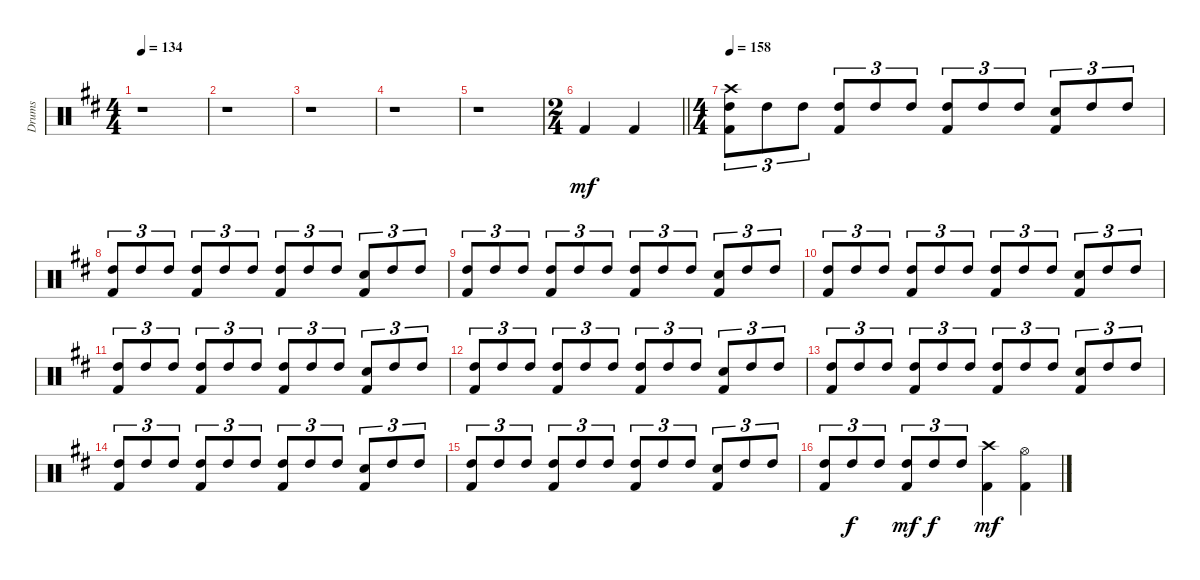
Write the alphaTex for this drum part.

\track ("Drums" "Drums") {instrument percussion}
\staff {score}
\articulation defaults
\ts (4 4)
\tempo 134
\clef neutral
\ks d
r.1{dy mf} |
r.1 |
r.1 |
r.1 |
r.1 |
\ts (2 4)
\barLineRight lightlight "Kick (hit) 2".4 "Kick (hit) 2".4
|
\ts (4 4)
\tempo 158
("Kick (hit) 2" "High Tom (hit)" "Crash high (hit)").8{tu (3 2)} "High Tom (hit)".8{tu (3 2)} "High Tom (hit)".8{tu (3 2)} ("Kick (hit) 2" "High Tom (hit)").8{tu (3 2)} "High Tom (hit)".8{tu (3 2)} "High Tom (hit)".8{tu (3 2)} ("Kick (hit) 2" "High Tom (hit)").8{tu (3 2)} "High Tom (hit)".8{tu (3 2)} "High Tom (hit)".8{tu (3 2)} ("Kick (hit) 2" "Snare (hit) 2").8{tu (3 2)} "High Tom (hit)".8{tu (3 2)} "High Tom (hit)".8{tu (3 2)} |
("Kick (hit) 2" "High Tom (hit)").8{tu (3 2)} "High Tom (hit)".8{tu (3 2)} "High Tom (hit)".8{tu (3 2)} ("Kick (hit) 2" "High Tom (hit)").8{tu (3 2)} "High Tom (hit)".8{tu (3 2)} "High Tom (hit)".8{tu (3 2)} ("Kick (hit) 2" "High Tom (hit)").8{tu (3 2)} "High Tom (hit)".8{tu (3 2)} "High Tom (hit)".8{tu (3 2)} ("Kick (hit) 2" "Snare (hit) 2").8{tu (3 2)} "High Tom (hit)".8{tu (3 2)} "High Tom (hit)".8{tu (3 2)} |
("Kick (hit) 2" "High Tom (hit)").8{tu (3 2)} "High Tom (hit)".8{tu (3 2)} "High Tom (hit)".8{tu (3 2)} ("Kick (hit) 2" "High Tom (hit)").8{tu (3 2)} "High Tom (hit)".8{tu (3 2)} "High Tom (hit)".8{tu (3 2)} ("Kick (hit) 2" "High Tom (hit)").8{tu (3 2)} "High Tom (hit)".8{tu (3 2)} "High Tom (hit)".8{tu (3 2)} ("Kick (hit) 2" "Snare (hit) 2").8{tu (3 2)} "High Tom (hit)".8{tu (3 2)} "High Tom (hit)".8{tu (3 2)} |
("Kick (hit) 2" "High Tom (hit)").8{tu (3 2)} "High Tom (hit)".8{tu (3 2)} "High Tom (hit)".8{tu (3 2)} ("Kick (hit) 2" "High Tom (hit)").8{tu (3 2)} "High Tom (hit)".8{tu (3 2)} "High Tom (hit)".8{tu (3 2)} ("Kick (hit) 2" "High Tom (hit)").8{tu (3 2)} "High Tom (hit)".8{tu (3 2)} "High Tom (hit)".8{tu (3 2)} ("Kick (hit) 2" "Snare (hit) 2").8{tu (3 2)} "High Tom (hit)".8{tu (3 2)} "High Tom (hit)".8{tu (3 2)} |
("Kick (hit) 2" "High Tom (hit)").8{tu (3 2)} "High Tom (hit)".8{tu (3 2)} "High Tom (hit)".8{tu (3 2)} ("Kick (hit) 2" "High Tom (hit)").8{tu (3 2)} "High Tom (hit)".8{tu (3 2)} "High Tom (hit)".8{tu (3 2)} ("Kick (hit) 2" "High Tom (hit)").8{tu (3 2)} "High Tom (hit)".8{tu (3 2)} "High Tom (hit)".8{tu (3 2)} ("Kick (hit) 2" "Snare (hit) 2").8{tu (3 2)} "High Tom (hit)".8{tu (3 2)} "High Tom (hit)".8{tu (3 2)} |
("Kick (hit) 2" "High Tom (hit)").8{tu (3 2)} "High Tom (hit)".8{tu (3 2)} "High Tom (hit)".8{tu (3 2)} ("Kick (hit) 2" "High Tom (hit)").8{tu (3 2)} "High Tom (hit)".8{tu (3 2)} "High Tom (hit)".8{tu (3 2)} ("Kick (hit) 2" "High Tom (hit)").8{tu (3 2)} "High Tom (hit)".8{tu (3 2)} "High Tom (hit)".8{tu (3 2)} ("Kick (hit) 2" "Snare (hit) 2").8{tu (3 2)} "High Tom (hit)".8{tu (3 2)} "High Tom (hit)".8{tu (3 2)} |
("Kick (hit) 2" "High Tom (hit)").8{tu (3 2)} "High Tom (hit)".8{tu (3 2)} "High Tom (hit)".8{tu (3 2)} ("Kick (hit) 2" "High Tom (hit)").8{tu (3 2)} "High Tom (hit)".8{tu (3 2)} "High Tom (hit)".8{tu (3 2)} ("Kick (hit) 2" "High Tom (hit)").8{tu (3 2)} "High Tom (hit)".8{tu (3 2)} "High Tom (hit)".8{tu (3 2)} ("Kick (hit) 2" "Snare (hit) 2").8{tu (3 2)} "High Tom (hit)".8{tu (3 2)} "High Tom (hit)".8{tu (3 2)} |
("Kick (hit) 2" "High Tom (hit)").8{tu (3 2)} "High Tom (hit)".8{tu (3 2)} "High Tom (hit)".8{tu (3 2)} ("Kick (hit) 2" "High Tom (hit)").8{tu (3 2)} "High Tom (hit)".8{tu (3 2)} "High Tom (hit)".8{tu (3 2)} ("Kick (hit) 2" "High Tom (hit)").8{tu (3 2)} "High Tom (hit)".8{tu (3 2)} "High Tom (hit)".8{tu (3 2)} ("Kick (hit) 2" "Snare (hit) 2").8{tu (3 2)} "High Tom (hit)".8{tu (3 2)} "High Tom (hit)".8{tu (3 2)} |
("Kick (hit) 2" "High Tom (hit)").8{tu (3 2)} "High Tom (hit)".8{tu (3 2)} "High Tom (hit)".8{tu (3 2)} ("Kick (hit) 2" "High Tom (hit)").8{tu (3 2)} "High Tom (hit)".8{tu (3 2)} "High Tom (hit)".8{tu (3 2)} ("Kick (hit) 2" "High Tom (hit)").8{tu (3 2)} "High Tom (hit)".8{tu (3 2)} "High Tom (hit)".8{tu (3 2)} ("Kick (hit) 2" "Snare (hit) 2").8{tu (3 2)} "High Tom (hit)".8{tu (3 2)} "High Tom (hit)".8{tu (3 2)} |
("Kick (hit) 2" "High Tom (hit)").8{tu (3 2)} "High Tom (hit)".8{tu (3 2) dy f} "High Tom (hit)".8{tu (3 2)} ("Kick (hit) 2" "High Tom (hit)").8{tu (3 2) dy mf} "High Tom (hit)".8{tu (3 2) dy f} "High Tom (hit)".8{tu (3 2)} ("Kick (hit) 2" "Crash high (hit)").4{dy mf} ("Kick (hit) 2" "Hi-Hat (open)").4
